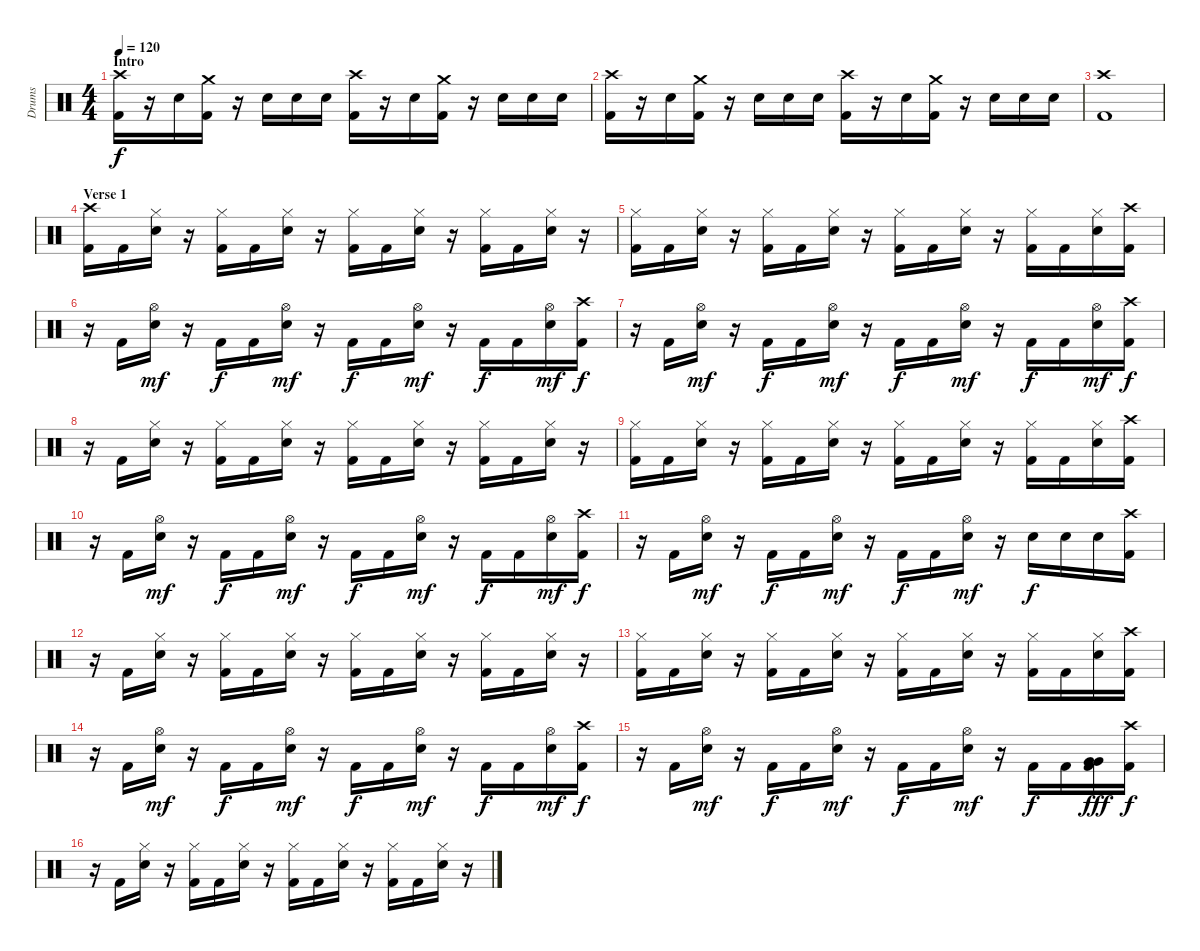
\track ("Drums" "Drums") {instrument percussion}
\staff {score}
\articulation defaults
\ts (4 4)
\section ("" "Intro")
\tempo 120
\clef neutral
\ks c
("Crash high (hit)" "Kick (hit) 2").16{dy f} r.16 "Electric Snare (hit)".16 ("Crash medium (hit)" "Kick (hit) 2").16 r.16 "Electric Snare (hit)".16 "Electric Snare (hit)".16 "Electric Snare (hit)".16 ("Crash high (hit)" "Kick (hit) 2").16 r.16 "Electric Snare (hit)".16 ("Crash medium (hit)" "Kick (hit) 2").16 r.16 "Electric Snare (hit)".16 "Electric Snare (hit)".16 "Electric Snare (hit)".16 |
("Crash high (hit)" "Kick (hit) 2").16 r.16 "Electric Snare (hit)".16 ("Crash medium (hit)" "Kick (hit) 2").16 r.16 "Electric Snare (hit)".16 "Electric Snare (hit)".16 "Electric Snare (hit)".16 ("Crash high (hit)" "Kick (hit) 2").16 r.16 "Electric Snare (hit)".16 ("Crash medium (hit)" "Kick (hit) 2").16 r.16 "Electric Snare (hit)".16 "Electric Snare (hit)".16 "Electric Snare (hit)".16 |
("Crash high (hit)" "Kick (hit) 2").1 |
\section ("" "Verse 1")
("Crash high (hit)" "Kick (hit) 2").16 "Kick (hit) 2".16 ("Hi-Hat (closed)" "Electric Snare (hit)").16 r.16 ("Hi-Hat (closed)" "Kick (hit) 2").16 "Kick (hit) 2".16 ("Hi-Hat (closed)" "Electric Snare (hit)").16 r.16 ("Hi-Hat (closed)" "Kick (hit) 2").16 "Kick (hit) 2".16 ("Hi-Hat (closed)" "Electric Snare (hit)").16 r.16 ("Hi-Hat (closed)" "Kick (hit) 2").16 "Kick (hit) 2".16 ("Hi-Hat (closed)" "Electric Snare (hit)").16 r.16 |
("Hi-Hat (closed)" "Kick (hit) 2").16 "Kick (hit) 2".16 ("Hi-Hat (closed)" "Electric Snare (hit)").16 r.16 ("Hi-Hat (closed)" "Kick (hit) 2").16 "Kick (hit) 2".16 ("Hi-Hat (closed)" "Electric Snare (hit)").16 r.16 ("Hi-Hat (closed)" "Kick (hit) 2").16 "Kick (hit) 2".16 ("Hi-Hat (closed)" "Electric Snare (hit)").16 r.16 ("Hi-Hat (closed)" "Kick (hit) 2").16 "Kick (hit) 2".16 ("Hi-Hat (closed)" "Electric Snare (hit)").16 ("Crash high (hit)" "Kick (hit) 2").16 |
r.16 "Kick (hit) 2".16 ("Hi-Hat (open)" "Electric Snare (hit)").16{dy mf} r.16 "Kick (hit) 2".16{dy f} "Kick (hit) 2".16 ("Hi-Hat (open)" "Electric Snare (hit)").16{dy mf} r.16 "Kick (hit) 2".16{dy f} "Kick (hit) 2".16 ("Hi-Hat (open)" "Electric Snare (hit)").16{dy mf} r.16 "Kick (hit) 2".16{dy f} "Kick (hit) 2".16 ("Hi-Hat (open)" "Electric Snare (hit)").16{dy mf} ("Crash high (hit)" "Kick (hit) 2").16{dy f} |
r.16 "Kick (hit) 2".16 ("Hi-Hat (open)" "Electric Snare (hit)").16{dy mf} r.16 "Kick (hit) 2".16{dy f} "Kick (hit) 2".16 ("Hi-Hat (open)" "Electric Snare (hit)").16{dy mf} r.16 "Kick (hit) 2".16{dy f} "Kick (hit) 2".16 ("Hi-Hat (open)" "Electric Snare (hit)").16{dy mf} r.16 "Kick (hit) 2".16{dy f} "Kick (hit) 2".16 ("Hi-Hat (open)" "Electric Snare (hit)").16{dy mf} ("Crash high (hit)" "Kick (hit) 2").16{dy f} |
r.16 "Kick (hit) 2".16 ("Hi-Hat (closed)" "Electric Snare (hit)").16 r.16 ("Hi-Hat (closed)" "Kick (hit) 2").16 "Kick (hit) 2".16 ("Hi-Hat (closed)" "Electric Snare (hit)").16 r.16 ("Hi-Hat (closed)" "Kick (hit) 2").16 "Kick (hit) 2".16 ("Hi-Hat (closed)" "Electric Snare (hit)").16 r.16 ("Hi-Hat (closed)" "Kick (hit) 2").16 "Kick (hit) 2".16 ("Hi-Hat (closed)" "Electric Snare (hit)").16 r.16 |
("Hi-Hat (closed)" "Kick (hit) 2").16 "Kick (hit) 2".16 ("Hi-Hat (closed)" "Electric Snare (hit)").16 r.16 ("Hi-Hat (closed)" "Kick (hit) 2").16 "Kick (hit) 2".16 ("Hi-Hat (closed)" "Electric Snare (hit)").16 r.16 ("Hi-Hat (closed)" "Kick (hit) 2").16 "Kick (hit) 2".16 ("Hi-Hat (closed)" "Electric Snare (hit)").16 r.16 ("Hi-Hat (closed)" "Kick (hit) 2").16 "Kick (hit) 2".16 ("Hi-Hat (closed)" "Electric Snare (hit)").16 ("Crash high (hit)" "Kick (hit) 2").16 |
r.16 "Kick (hit) 2".16 ("Hi-Hat (open)" "Electric Snare (hit)").16{dy mf} r.16 "Kick (hit) 2".16{dy f} "Kick (hit) 2".16 ("Hi-Hat (open)" "Electric Snare (hit)").16{dy mf} r.16 "Kick (hit) 2".16{dy f} "Kick (hit) 2".16 ("Hi-Hat (open)" "Electric Snare (hit)").16{dy mf} r.16 "Kick (hit) 2".16{dy f} "Kick (hit) 2".16 ("Hi-Hat (open)" "Electric Snare (hit)").16{dy mf} ("Crash high (hit)" "Kick (hit) 2").16{dy f} |
r.16 "Kick (hit) 2".16 ("Hi-Hat (open)" "Electric Snare (hit)").16{dy mf} r.16 "Kick (hit) 2".16{dy f} "Kick (hit) 2".16 ("Hi-Hat (open)" "Electric Snare (hit)").16{dy mf} r.16 "Kick (hit) 2".16{dy f} "Kick (hit) 2".16 ("Hi-Hat (open)" "Electric Snare (hit)").16{dy mf} r.16 "Electric Snare (hit)".16{dy f} "Electric Snare (hit)".16 "Electric Snare (hit)".16 ("Crash high (hit)" "Kick (hit) 2").16 |
r.16 "Kick (hit) 2".16 ("Hi-Hat (closed)" "Electric Snare (hit)").16 r.16 ("Hi-Hat (closed)" "Kick (hit) 2").16 "Kick (hit) 2".16 ("Hi-Hat (closed)" "Electric Snare (hit)").16 r.16 ("Hi-Hat (closed)" "Kick (hit) 2").16 "Kick (hit) 2".16 ("Hi-Hat (closed)" "Electric Snare (hit)").16 r.16 ("Hi-Hat (closed)" "Kick (hit) 2").16 "Kick (hit) 2".16 ("Hi-Hat (closed)" "Electric Snare (hit)").16 r.16 |
("Hi-Hat (closed)" "Kick (hit) 2").16 "Kick (hit) 2".16 ("Hi-Hat (closed)" "Electric Snare (hit)").16 r.16 ("Hi-Hat (closed)" "Kick (hit) 2").16 "Kick (hit) 2".16 ("Hi-Hat (closed)" "Electric Snare (hit)").16 r.16 ("Hi-Hat (closed)" "Kick (hit) 2").16 "Kick (hit) 2".16 ("Hi-Hat (closed)" "Electric Snare (hit)").16 r.16 ("Hi-Hat (closed)" "Kick (hit) 2").16 "Kick (hit) 2".16 ("Hi-Hat (closed)" "Electric Snare (hit)").16 ("Crash high (hit)" "Kick (hit) 2").16 |
r.16 "Kick (hit) 2".16 ("Hi-Hat (open)" "Electric Snare (hit)").16{dy mf} r.16 "Kick (hit) 2".16{dy f} "Kick (hit) 2".16 ("Hi-Hat (open)" "Electric Snare (hit)").16{dy mf} r.16 "Kick (hit) 2".16{dy f} "Kick (hit) 2".16 ("Hi-Hat (open)" "Electric Snare (hit)").16{dy mf} r.16 "Kick (hit) 2".16{dy f} "Kick (hit) 2".16 ("Hi-Hat (open)" "Electric Snare (hit)").16{dy mf} ("Crash high (hit)" "Kick (hit) 2").16{dy f} |
r.16 "Kick (hit) 2".16 ("Hi-Hat (open)" "Electric Snare (hit)").16{dy mf} r.16 "Kick (hit) 2".16{dy f} "Kick (hit) 2".16 ("Hi-Hat (open)" "Electric Snare (hit)").16{dy mf} r.16 "Kick (hit) 2".16{dy f} "Kick (hit) 2".16 ("Hi-Hat (open)" "Electric Snare (hit)").16{dy mf} r.16 "Kick (hit) 2".16{dy f} "Kick (hit) 2".16 ("Very Low Tom (hit)" "Very Low Tom (hit)" "Kick (hit) 2").16{dy fff} ("Crash high (hit)" "Kick (hit) 2").16{dy f} |
r.16 "Kick (hit) 2".16 ("Hi-Hat (closed)" "Electric Snare (hit)").16 r.16 ("Hi-Hat (closed)" "Kick (hit) 2").16 "Kick (hit) 2".16 ("Hi-Hat (closed)" "Electric Snare (hit)").16 r.16 ("Hi-Hat (closed)" "Kick (hit) 2").16 "Kick (hit) 2".16 ("Hi-Hat (closed)" "Electric Snare (hit)").16 r.16 ("Hi-Hat (closed)" "Kick (hit) 2").16 "Kick (hit) 2".16 ("Hi-Hat (closed)" "Electric Snare (hit)").16 r.16
